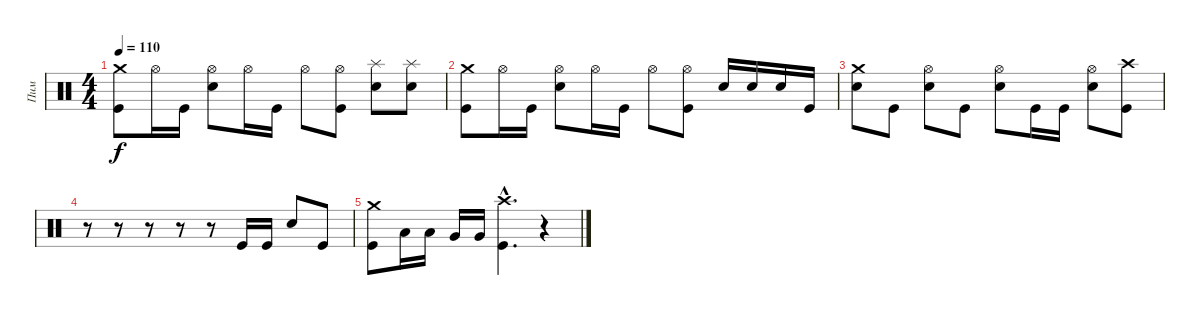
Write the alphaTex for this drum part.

\track ("Пим" "Пим") {instrument percussion}
\staff {score}
\articulation defaults
\ts (4 4)
\tempo 110
\clef neutral
\ks c
("Crash medium (hit)" "Kick (hit)").8{dy f} "Hi-Hat (open)".16 "Kick (hit)".16 ("Hi-Hat (open)" "Snare (hit) 2").8 "Hi-Hat (open)".16 "Kick (hit)".16 "Hi-Hat (open)".8 ("Hi-Hat (open)" "Kick (hit)").8 ("Splash (hit)" "Snare (hit) 2").8 ("Splash (hit)" "Snare (hit) 2").8 |
("Crash medium (hit)" "Kick (hit)").8 "Hi-Hat (open)".16 "Kick (hit)".16 ("Hi-Hat (open)" "Snare (hit) 2").8 "Hi-Hat (open)".16 "Kick (hit)".16 "Hi-Hat (open)".8 ("Hi-Hat (open)" "Kick (hit)").8 "Snare (hit) 2".16 "Snare (hit) 2".16 "Snare (hit) 2".16 "Kick (hit)".16 |
("Crash medium (hit)" "Snare (hit) 2").8 "Kick (hit)".8 ("Hi-Hat (open)" "Snare (hit) 2").8 "Kick (hit)".8 ("Hi-Hat (open)" "Snare (hit) 2").8 "Kick (hit)".16 "Kick (hit)".16 ("Hi-Hat (open)" "Snare (hit) 2").8 ("Crash high (hit)" "Kick (hit)").8 |
r.8 r.8 r.8 r.8 r.8 "Kick (hit)".16 "Kick (hit)".16 "Snare (hit) 2".8 "Kick (hit)".8 |
("Crash medium (hit)" "Kick (hit)").8 "Low Tom (hit)".16 "Low Tom (hit)".16 "Very Low Tom (hit)".16 "Very Low Tom (hit)".16 ("Crash high (hit)"{hac} "Kick (hit)"{hac}).4{d} r.4
